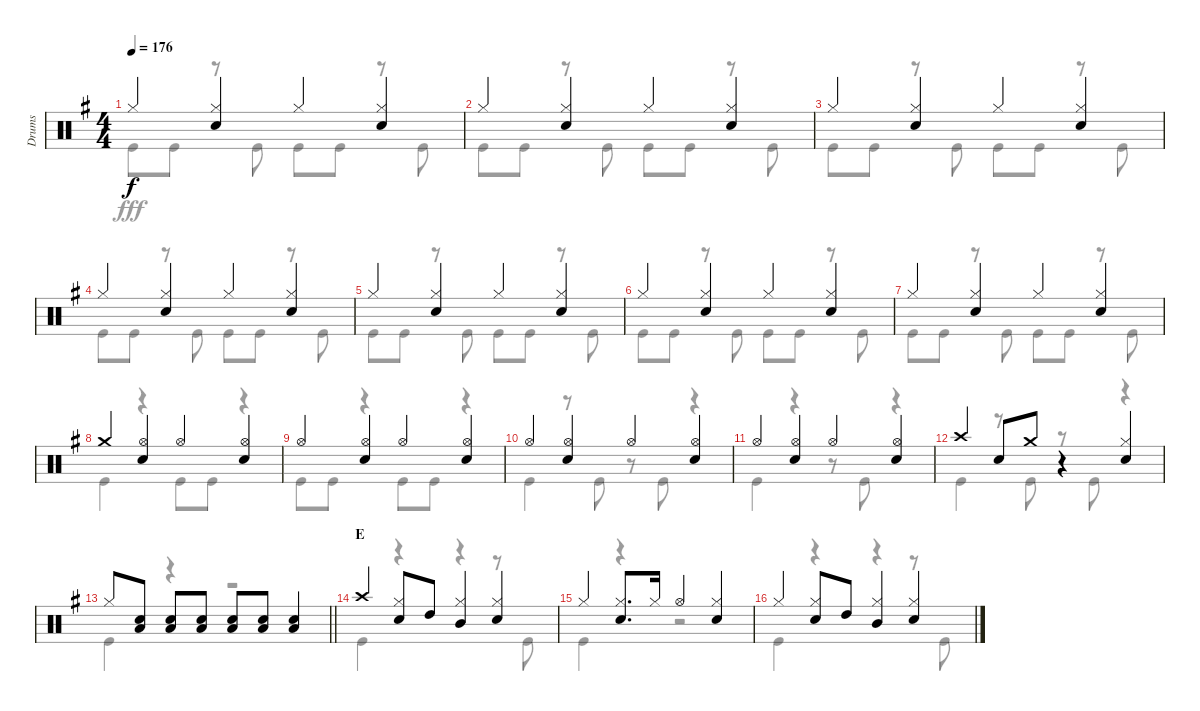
\track ("Drums" "Drums") {instrument percussion}
\staff {score}
\articulation defaults
\voice
\ts (4 4)
\tempo 176
\clef neutral
\ks g "Hi-Hat (closed)".4{dy f}
("Hi-Hat (closed)" "Snare (hit) 2").4 "Hi-Hat (closed)".4 ("Hi-Hat (closed)" "Snare (hit) 2").4 |
"Hi-Hat (closed)".4 ("Hi-Hat (closed)" "Snare (hit) 2").4 "Hi-Hat (closed)".4 ("Hi-Hat (closed)" "Snare (hit) 2").4 |
"Hi-Hat (closed)".4 ("Hi-Hat (closed)" "Snare (hit) 2").4 "Hi-Hat (closed)".4 ("Hi-Hat (closed)" "Snare (hit) 2").4 |
"Hi-Hat (closed)".4 ("Hi-Hat (closed)" "Snare (hit) 2").4 "Hi-Hat (closed)".4 ("Hi-Hat (closed)" "Snare (hit) 2").4 |
"Hi-Hat (closed)".4 ("Hi-Hat (closed)" "Snare (hit) 2").4 "Hi-Hat (closed)".4 ("Hi-Hat (closed)" "Snare (hit) 2").4 |
"Hi-Hat (closed)".4 ("Hi-Hat (closed)" "Snare (hit) 2").4 "Hi-Hat (closed)".4 ("Hi-Hat (closed)" "Snare (hit) 2").4 |
"Hi-Hat (closed)".4 ("Hi-Hat (closed)" "Snare (hit) 2").4 "Hi-Hat (closed)".4 ("Hi-Hat (closed)" "Snare (hit) 2").4 |
"Crash medium (hit)".4 ("Hi-Hat (open)" "Snare (hit) 2").4 "Hi-Hat (open)".4 ("Hi-Hat (open)" "Snare (hit) 2").4 |
"Hi-Hat (open)".4 ("Hi-Hat (open)" "Snare (hit) 2").4 "Hi-Hat (open)".4 ("Hi-Hat (open)" "Snare (hit) 2").4 |
"Hi-Hat (open)".4 ("Hi-Hat (open)" "Snare (hit) 2").4 "Hi-Hat (open)".4 ("Hi-Hat (open)" "Snare (hit) 2").4 |
"Hi-Hat (open)".4 ("Hi-Hat (open)" "Snare (hit) 2").4 "Hi-Hat (open)".4 ("Hi-Hat (open)" "Snare (hit) 2").4 |
"Crash high (hit)".4 "Snare (hit) 2".8 "Crash medium (hit)".8 r.4 ("Hi-Hat (closed)" "Snare (hit) 2").4 |
\barLineRight lightlight "Hi-Hat (closed)".8
("Snare (hit) 2" "Low Tom (hit)").8 ("Snare (hit) 2" "Low Tom (hit)").8 ("Snare (hit) 2" "Low Tom (hit)").8 ("Snare (hit) 2" "Low Tom (hit)").8 ("Snare (hit) 2" "Low Tom (hit)").8 ("Snare (hit) 2" "Low Tom (hit)").4 |
\section ("" "E")
"Crash high (hit)".4 ("Hi-Hat (closed)" "Snare (hit) 2").8 "High Tom (hit)".8 ("Hi-Hat (closed)" "Mid Tom (hit)").4 ("Hi-Hat (closed)" "Snare (hit) 2").4 |
"Hi-Hat (closed)".4 ("Hi-Hat (closed)" "Snare (hit) 2").8{d} "Hi-Hat (closed)".16 "Hi-Hat (open)".4 ("Hi-Hat (closed)" "Snare (hit) 2").4 |
"Hi-Hat (closed)".4 ("Hi-Hat (closed)" "Snare (hit) 2").8 "High Tom (hit)".8 ("Hi-Hat (closed)" "Mid Tom (hit)").4 ("Hi-Hat (closed)" "Snare (hit) 2").4
\voice
\clef neutral
\ottava regular
\simile none
\ks g "Kick (hit)".8{dy fff} "Kick (hit)".8
r.8 "Kick (hit)".8 "Kick (hit)".8 "Kick (hit)".8 r.8 "Kick (hit)".8 |
"Kick (hit)".8 "Kick (hit)".8 r.8 "Kick (hit)".8 "Kick (hit)".8 "Kick (hit)".8 r.8 "Kick (hit)".8 |
"Kick (hit)".8 "Kick (hit)".8 r.8 "Kick (hit)".8 "Kick (hit)".8 "Kick (hit)".8 r.8 "Kick (hit)".8 |
"Kick (hit)".8 "Kick (hit)".8 r.8 "Kick (hit)".8 "Kick (hit)".8 "Kick (hit)".8 r.8 "Kick (hit)".8 |
"Kick (hit)".8 "Kick (hit)".8 r.8 "Kick (hit)".8 "Kick (hit)".8 "Kick (hit)".8 r.8 "Kick (hit)".8 |
"Kick (hit)".8 "Kick (hit)".8 r.8 "Kick (hit)".8 "Kick (hit)".8 "Kick (hit)".8 r.8 "Kick (hit)".8 |
"Kick (hit)".8 "Kick (hit)".8 r.8 "Kick (hit)".8 "Kick (hit)".8 "Kick (hit)".8 r.8 "Kick (hit)".8 |
"Kick (hit)".4 r.4 "Kick (hit)".8 "Kick (hit)".8 r.4 |
"Kick (hit)".8 "Kick (hit)".8 r.4 "Kick (hit)".8 "Kick (hit)".8 r.4 |
"Kick (hit)".4 r.8 "Kick (hit)".8 r.8 "Kick (hit)".8 r.4 |
"Kick (hit)".4 r.4 r.8 "Kick (hit)".8 r.4 |
"Kick (hit)".4 r.8 "Kick (hit)".8 r.8 "Kick (hit)".8 r.4 |
\barLineRight lightlight "Kick (hit)".4
r.4 r.2 |
"Kick (hit)".4 r.4 r.4 r.8 "Kick (hit)".8 |
"Kick (hit)".4 r.4 r.2 |
"Kick (hit)".4 r.4 r.4 r.8 "Kick (hit)".8
